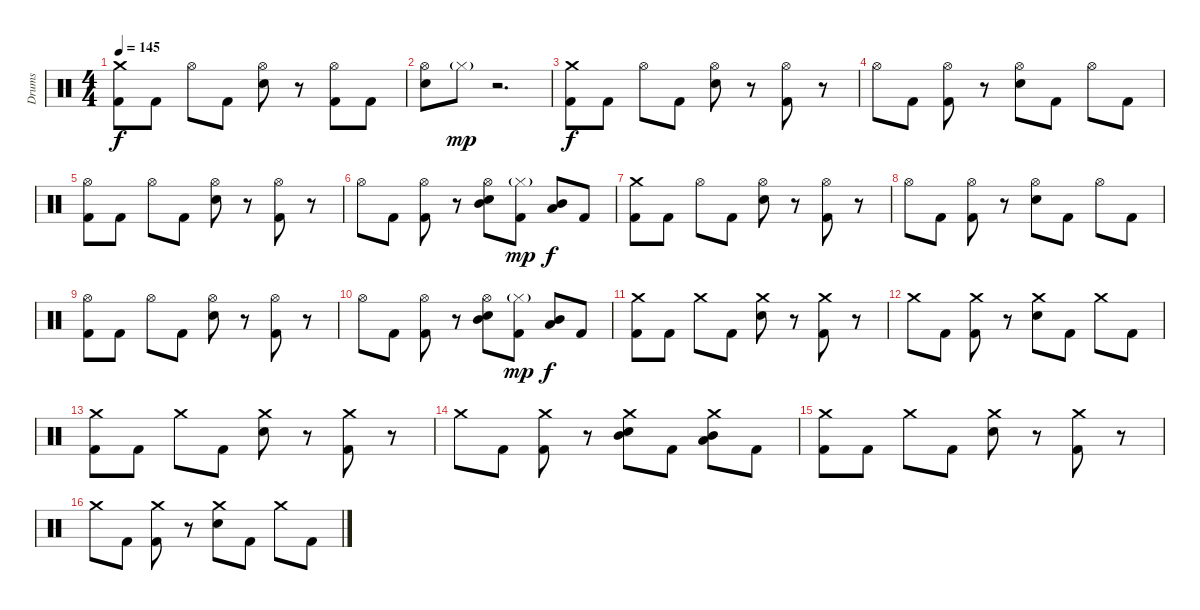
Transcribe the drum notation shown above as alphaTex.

\track ("Drums" "Drums") {instrument percussion}
\staff {score}
\articulation defaults
\ts (4 4)
\tempo 145
\clef neutral
\ks c
("Crash medium (hit)" "Kick (hit) 2").8{dy f} "Kick (hit) 2".8 "Hi-Hat (open)".8 "Kick (hit) 2".8 ("Hi-Hat (open)" "Electric Snare (hit)").8 r.8 ("Hi-Hat (open)" "Kick (hit) 2").8 "Kick (hit) 2".8 |
("Hi-Hat (open)" "Electric Snare (hit)").8 "Hi-Hat (closed)"{g}.8{dy mp} r.2{d} |
("Crash medium (hit)" "Kick (hit) 2").8{dy f} "Kick (hit) 2".8 "Hi-Hat (open)".8 "Kick (hit) 2".8 ("Hi-Hat (open)" "Electric Snare (hit)").8 r.8 ("Hi-Hat (open)" "Kick (hit) 2").8 r.8 |
"Hi-Hat (open)".8 "Kick (hit) 2".8 ("Hi-Hat (open)" "Kick (hit) 2").8 r.8 ("Hi-Hat (open)" "Electric Snare (hit)").8 "Kick (hit) 2".8 "Hi-Hat (open)".8 "Kick (hit) 2".8 |
("Hi-Hat (open)" "Kick (hit) 2").8 "Kick (hit) 2".8 "Hi-Hat (open)".8 "Kick (hit) 2".8 ("Hi-Hat (open)" "Electric Snare (hit)").8 r.8 ("Hi-Hat (open)" "Kick (hit) 2").8 r.8 |
"Hi-Hat (open)".8 "Kick (hit) 2".8 ("Hi-Hat (open)" "Kick (hit) 2").8 r.8 ("Hi-Hat (open)" "Electric Snare (hit)" "Mid Tom (hit)").8 ("Hi-Hat (closed)"{g} "Kick (hit) 2").8{dy mp} ("Mid Tom (hit)" "Low Tom (hit)").8{dy f} "Kick (hit) 2".8 |
("Crash medium (hit)" "Kick (hit) 2").8 "Kick (hit) 2".8 "Hi-Hat (open)".8 "Kick (hit) 2".8 ("Hi-Hat (open)" "Electric Snare (hit)").8 r.8 ("Hi-Hat (open)" "Kick (hit) 2").8 r.8 |
"Hi-Hat (open)".8 "Kick (hit) 2".8 ("Hi-Hat (open)" "Kick (hit) 2").8 r.8 ("Hi-Hat (open)" "Electric Snare (hit)").8 "Kick (hit) 2".8 "Hi-Hat (open)".8 "Kick (hit) 2".8 |
("Hi-Hat (open)" "Kick (hit) 2").8 "Kick (hit) 2".8 "Hi-Hat (open)".8 "Kick (hit) 2".8 ("Hi-Hat (open)" "Electric Snare (hit)").8 r.8 ("Hi-Hat (open)" "Kick (hit) 2").8 r.8 |
"Hi-Hat (open)".8 "Kick (hit) 2".8 ("Hi-Hat (open)" "Kick (hit) 2").8 r.8 ("Hi-Hat (open)" "Electric Snare (hit)" "Mid Tom (hit)").8 ("Hi-Hat (closed)"{g} "Kick (hit) 2").8{dy mp} ("Mid Tom (hit)" "Low Tom (hit)").8{dy f} "Kick (hit) 2".8 |
("Crash medium (hit)" "Kick (hit) 2").8 "Kick (hit) 2".8 "Crash medium (hit)".8 "Kick (hit) 2".8 ("Crash medium (hit)" "Electric Snare (hit)").8 r.8 ("Crash medium (hit)" "Kick (hit) 2").8 r.8 |
"Crash medium (hit)".8 "Kick (hit) 2".8 ("Crash medium (hit)" "Kick (hit) 2").8 r.8 ("Crash medium (hit)" "Electric Snare (hit)").8 "Kick (hit) 2".8 "Crash medium (hit)".8 "Kick (hit) 2".8 |
("Crash medium (hit)" "Kick (hit) 2").8 "Kick (hit) 2".8 "Crash medium (hit)".8 "Kick (hit) 2".8 ("Crash medium (hit)" "Electric Snare (hit)").8 r.8 ("Crash medium (hit)" "Kick (hit) 2").8 r.8 |
"Crash medium (hit)".8 "Kick (hit) 2".8 ("Crash medium (hit)" "Kick (hit) 2").8 r.8 ("Crash medium (hit)" "Electric Snare (hit)" "Mid Tom (hit)").8 "Kick (hit) 2".8 ("Crash medium (hit)" "Mid Tom (hit)" "Low Tom (hit)").8 "Kick (hit) 2".8 |
("Crash medium (hit)" "Kick (hit) 2").8 "Kick (hit) 2".8 "Crash medium (hit)".8 "Kick (hit) 2".8 ("Crash medium (hit)" "Electric Snare (hit)").8 r.8 ("Crash medium (hit)" "Kick (hit) 2").8 r.8 |
"Crash medium (hit)".8 "Kick (hit) 2".8 ("Crash medium (hit)" "Kick (hit) 2").8 r.8 ("Crash medium (hit)" "Electric Snare (hit)").8 "Kick (hit) 2".8 "Crash medium (hit)".8 "Kick (hit) 2".8
